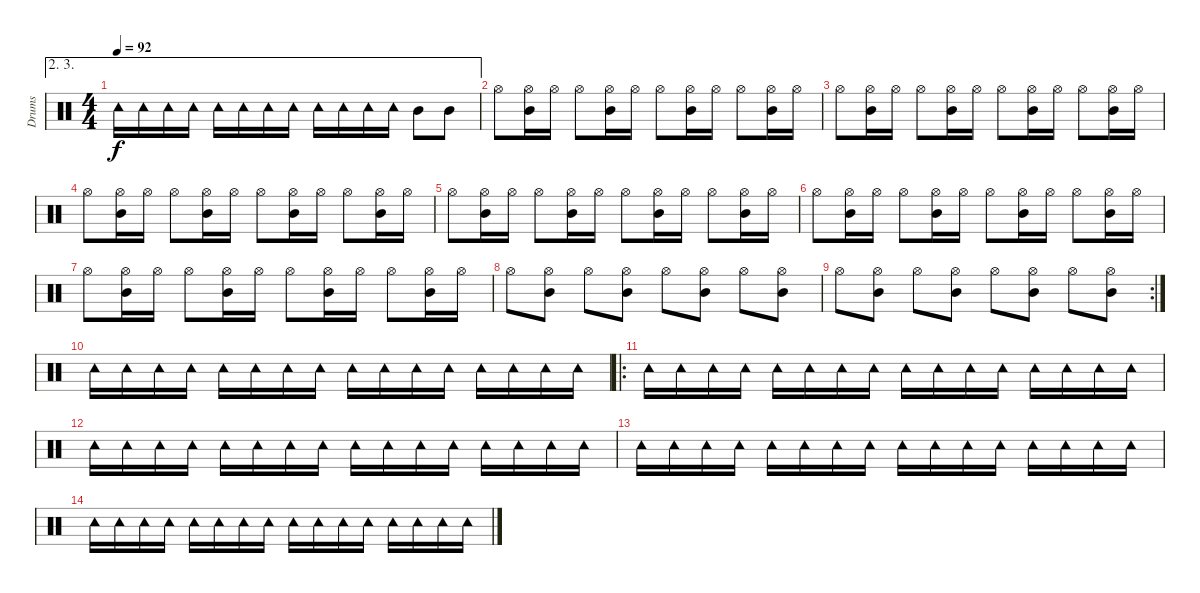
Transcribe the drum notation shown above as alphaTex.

\track ("Drums" "Drums") {instrument percussion}
\staff {score}
\articulation defaults
\ae (2 3)
\ts (4 4)
\tempo 92
\clef neutral
\ks c "Tambourine (hit)".16{dy f} "Tambourine (hit)".16 "Tambourine (hit)".16 "Tambourine (hit)".16 "Tambourine (hit)".16 "Tambourine (hit)".16 "Tambourine (hit)".16 "Tambourine (hit)".16 "Tambourine (hit)".16 "Tambourine (hit)".16 "Tambourine (hit)".16 "Tambourine (hit)".16 "Mid Tom (hit)".8 "Mid Tom (hit)".8
|
"Hi-Hat (open)".8 ("Hi-Hat (open)" "Mid Tom (hit)").16 "Hi-Hat (open)".16 "Hi-Hat (open)".8 ("Hi-Hat (open)" "Mid Tom (hit)").16 "Hi-Hat (open)".16 "Hi-Hat (open)".8 ("Hi-Hat (open)" "Mid Tom (hit)").16 "Hi-Hat (open)".16 "Hi-Hat (open)".8 ("Hi-Hat (open)" "Mid Tom (hit)").16 "Hi-Hat (open)".16 |
"Hi-Hat (open)".8 ("Hi-Hat (open)" "Mid Tom (hit)").16 "Hi-Hat (open)".16 "Hi-Hat (open)".8 ("Hi-Hat (open)" "Mid Tom (hit)").16 "Hi-Hat (open)".16 "Hi-Hat (open)".8 ("Hi-Hat (open)" "Mid Tom (hit)").16 "Hi-Hat (open)".16 "Hi-Hat (open)".8 ("Hi-Hat (open)" "Mid Tom (hit)").16 "Hi-Hat (open)".16 |
"Hi-Hat (open)".8 ("Hi-Hat (open)" "Mid Tom (hit)").16 "Hi-Hat (open)".16 "Hi-Hat (open)".8 ("Hi-Hat (open)" "Mid Tom (hit)").16 "Hi-Hat (open)".16 "Hi-Hat (open)".8 ("Hi-Hat (open)" "Mid Tom (hit)").16 "Hi-Hat (open)".16 "Hi-Hat (open)".8 ("Hi-Hat (open)" "Mid Tom (hit)").16 "Hi-Hat (open)".16 |
"Hi-Hat (open)".8 ("Hi-Hat (open)" "Mid Tom (hit)").16 "Hi-Hat (open)".16 "Hi-Hat (open)".8 ("Hi-Hat (open)" "Mid Tom (hit)").16 "Hi-Hat (open)".16 "Hi-Hat (open)".8 ("Hi-Hat (open)" "Mid Tom (hit)").16 "Hi-Hat (open)".16 "Hi-Hat (open)".8 ("Hi-Hat (open)" "Mid Tom (hit)").16 "Hi-Hat (open)".16 |
"Hi-Hat (open)".8 ("Hi-Hat (open)" "Mid Tom (hit)").16 "Hi-Hat (open)".16 "Hi-Hat (open)".8 ("Hi-Hat (open)" "Mid Tom (hit)").16 "Hi-Hat (open)".16 "Hi-Hat (open)".8 ("Hi-Hat (open)" "Mid Tom (hit)").16 "Hi-Hat (open)".16 "Hi-Hat (open)".8 ("Hi-Hat (open)" "Mid Tom (hit)").16 "Hi-Hat (open)".16 |
"Hi-Hat (open)".8 ("Hi-Hat (open)" "Mid Tom (hit)").16 "Hi-Hat (open)".16 "Hi-Hat (open)".8 ("Hi-Hat (open)" "Mid Tom (hit)").16 "Hi-Hat (open)".16 "Hi-Hat (open)".8 ("Hi-Hat (open)" "Mid Tom (hit)").16 "Hi-Hat (open)".16 "Hi-Hat (open)".8 ("Hi-Hat (open)" "Mid Tom (hit)").16 "Hi-Hat (open)".16 |
"Hi-Hat (open)".8 ("Hi-Hat (open)" "Mid Tom (hit)").8 "Hi-Hat (open)".8 ("Hi-Hat (open)" "Mid Tom (hit)").8 "Hi-Hat (open)".8 ("Hi-Hat (open)" "Mid Tom (hit)").8 "Hi-Hat (open)".8 ("Hi-Hat (open)" "Mid Tom (hit)").8 |
\rc 2 "Hi-Hat (open)".8
("Hi-Hat (open)" "Mid Tom (hit)").8 "Hi-Hat (open)".8 ("Hi-Hat (open)" "Mid Tom (hit)").8 "Hi-Hat (open)".8 ("Hi-Hat (open)" "Mid Tom (hit)").8 "Hi-Hat (open)".8 ("Hi-Hat (open)" "Mid Tom (hit)").8 |
"Tambourine (hit)".16 "Tambourine (hit)".16 "Tambourine (hit)".16 "Tambourine (hit)".16 "Tambourine (hit)".16 "Tambourine (hit)".16 "Tambourine (hit)".16 "Tambourine (hit)".16 "Tambourine (hit)".16 "Tambourine (hit)".16 "Tambourine (hit)".16 "Tambourine (hit)".16 "Tambourine (hit)".16 "Tambourine (hit)".16 "Tambourine (hit)".16 "Tambourine (hit)".16 |
\ro "Tambourine (hit)".16 "Tambourine (hit)".16 "Tambourine (hit)".16 "Tambourine (hit)".16 "Tambourine (hit)".16 "Tambourine (hit)".16 "Tambourine (hit)".16 "Tambourine (hit)".16 "Tambourine (hit)".16 "Tambourine (hit)".16 "Tambourine (hit)".16 "Tambourine (hit)".16 "Tambourine (hit)".16 "Tambourine (hit)".16 "Tambourine (hit)".16 "Tambourine (hit)".16
|
"Tambourine (hit)".16 "Tambourine (hit)".16 "Tambourine (hit)".16 "Tambourine (hit)".16 "Tambourine (hit)".16 "Tambourine (hit)".16 "Tambourine (hit)".16 "Tambourine (hit)".16 "Tambourine (hit)".16 "Tambourine (hit)".16 "Tambourine (hit)".16 "Tambourine (hit)".16 "Tambourine (hit)".16 "Tambourine (hit)".16 "Tambourine (hit)".16 "Tambourine (hit)".16 |
"Tambourine (hit)".16 "Tambourine (hit)".16 "Tambourine (hit)".16 "Tambourine (hit)".16 "Tambourine (hit)".16 "Tambourine (hit)".16 "Tambourine (hit)".16 "Tambourine (hit)".16 "Tambourine (hit)".16 "Tambourine (hit)".16 "Tambourine (hit)".16 "Tambourine (hit)".16 "Tambourine (hit)".16 "Tambourine (hit)".16 "Tambourine (hit)".16 "Tambourine (hit)".16 |
"Tambourine (hit)".16 "Tambourine (hit)".16 "Tambourine (hit)".16 "Tambourine (hit)".16 "Tambourine (hit)".16 "Tambourine (hit)".16 "Tambourine (hit)".16 "Tambourine (hit)".16 "Tambourine (hit)".16 "Tambourine (hit)".16 "Tambourine (hit)".16 "Tambourine (hit)".16 "Tambourine (hit)".16 "Tambourine (hit)".16 "Tambourine (hit)".16 "Tambourine (hit)".16
